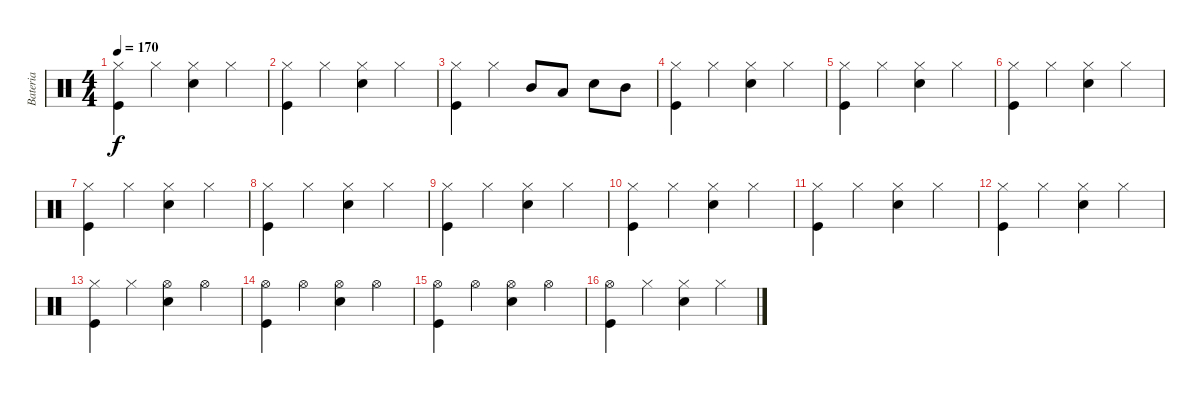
\track ("Bateria" "Bateria") {instrument percussion}
\staff {score}
\articulation defaults
\ts (4 4)
\tempo 170
\clef neutral
\ks c
("Hi-Hat (closed)" "Kick (hit)").4{dy f} "Hi-Hat (closed)".4 ("Hi-Hat (closed)" "Snare (hit) 2").4 "Hi-Hat (closed)".4 |
("Hi-Hat (closed)" "Kick (hit)").4 "Hi-Hat (closed)".4 ("Hi-Hat (closed)" "Snare (hit) 2").4 "Hi-Hat (closed)".4 |
("Hi-Hat (closed)" "Kick (hit)").4 "Hi-Hat (closed)".4 "Mid Tom (hit)".8 "Low Tom (hit)".8 "Snare (hit) 2".8 "Mid Tom (hit)".8 |
("Hi-Hat (closed)" "Kick (hit)").4 "Hi-Hat (closed)".4 ("Hi-Hat (closed)" "Snare (hit) 2").4 "Hi-Hat (closed)".4 |
("Hi-Hat (closed)" "Kick (hit)").4 "Hi-Hat (closed)".4 ("Hi-Hat (closed)" "Snare (hit) 2").4 "Hi-Hat (closed)".4 |
("Hi-Hat (closed)" "Kick (hit)").4 "Hi-Hat (closed)".4 ("Hi-Hat (closed)" "Snare (hit) 2").4 "Hi-Hat (closed)".4 |
("Hi-Hat (closed)" "Kick (hit)").4 "Hi-Hat (closed)".4 ("Hi-Hat (closed)" "Snare (hit) 2").4 "Hi-Hat (closed)".4 |
("Hi-Hat (closed)" "Kick (hit)").4 "Hi-Hat (closed)".4 ("Hi-Hat (closed)" "Snare (hit) 2").4 "Hi-Hat (closed)".4 |
("Hi-Hat (closed)" "Kick (hit)").4 "Hi-Hat (closed)".4 ("Hi-Hat (closed)" "Snare (hit) 2").4 "Hi-Hat (closed)".4 |
("Hi-Hat (closed)" "Kick (hit)").4 "Hi-Hat (closed)".4 ("Hi-Hat (closed)" "Snare (hit) 2").4 "Hi-Hat (closed)".4 |
("Hi-Hat (closed)" "Kick (hit)").4 "Hi-Hat (closed)".4 ("Hi-Hat (closed)" "Snare (hit) 2").4 "Hi-Hat (closed)".4 |
("Hi-Hat (closed)" "Kick (hit)").4 "Hi-Hat (closed)".4 ("Hi-Hat (closed)" "Snare (hit) 2").4 "Hi-Hat (closed)".4 |
("Hi-Hat (closed)" "Kick (hit)").4 "Hi-Hat (closed)".4 ("Hi-Hat (open)" "Snare (hit) 2").4 "Hi-Hat (open)".4 |
("Hi-Hat (open)" "Kick (hit)").4 "Hi-Hat (open)".4 ("Hi-Hat (open)" "Snare (hit) 2").4 "Hi-Hat (open)".4 |
("Hi-Hat (open)" "Kick (hit)").4 "Hi-Hat (open)".4 ("Hi-Hat (open)" "Snare (hit) 2").4 "Hi-Hat (open)".4 |
("Hi-Hat (open)" "Kick (hit)").4 "Hi-Hat (closed)".4 ("Hi-Hat (closed)" "Snare (hit) 2").4 "Hi-Hat (closed)".4
